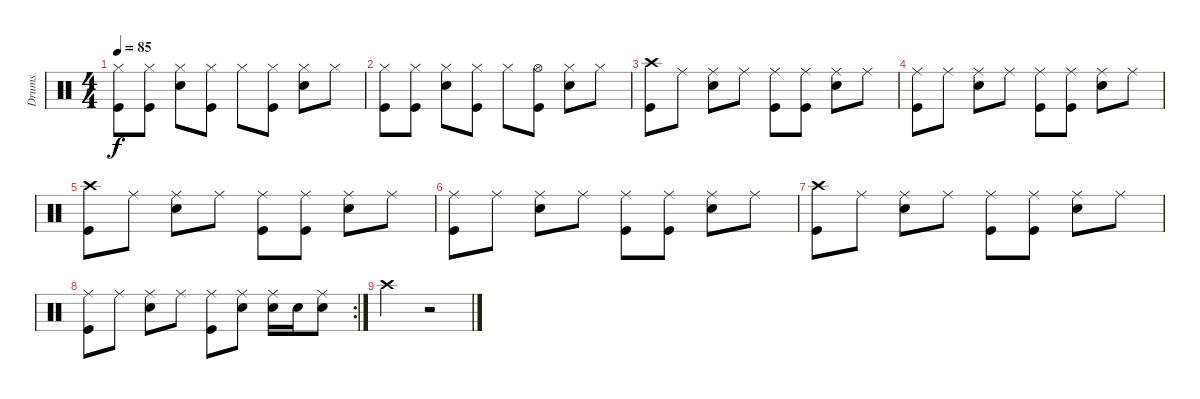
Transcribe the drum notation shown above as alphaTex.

\track ("Drums" "Drums") {instrument percussion}
\staff {score}
\articulation defaults
\ts (4 4)
\tempo 85
\clef neutral
\ks c
("Kick (hit)" "Hi-Hat (closed)").8{dy f} ("Hi-Hat (closed)" "Kick (hit)").8 ("Snare (hit) 2" "Hi-Hat (closed)").8 ("Kick (hit)" "Hi-Hat (closed)").8 "Hi-Hat (closed)".8 ("Hi-Hat (closed)" "Kick (hit)").8 ("Hi-Hat (closed)" "Snare (hit) 2").8 "Hi-Hat (closed)".8 |
("Kick (hit)" "Hi-Hat (closed)").8 ("Hi-Hat (closed)" "Kick (hit)").8 ("Snare (hit) 2" "Hi-Hat (closed)").8 ("Kick (hit)" "Hi-Hat (closed)").8 "Hi-Hat (closed)".8 ("Hi-Hat (open)" "Kick (hit)").8 ("Hi-Hat (closed)" "Snare (hit) 2").8 "Hi-Hat (closed)".8 |
("Kick (hit)" "Crash high (hit)").8 "Ride (middle)".8 ("Ride (middle)" "Snare (hit) 2").8 "Ride (middle)".8 ("Kick (hit)" "Ride (middle)").8 ("Kick (hit)" "Ride (middle)").8 ("Snare (hit) 2" "Ride (middle)").8 "Ride (middle)".8 |
("Kick (hit)" "Ride (middle)").8 "Ride (middle)".8 ("Ride (middle)" "Snare (hit) 2").8 "Ride (middle)".8 ("Kick (hit)" "Ride (middle)").8 ("Kick (hit)" "Ride (middle)").8 ("Snare (hit) 2" "Ride (middle)").8 "Ride (middle)".8 |
("Kick (hit)" "Crash high (hit)").8 "Ride (middle)".8 ("Ride (middle)" "Snare (hit) 2").8 "Ride (middle)".8 ("Kick (hit)" "Ride (middle)").8 ("Kick (hit)" "Ride (middle)").8 ("Snare (hit) 2" "Ride (middle)").8 "Ride (middle)".8 |
("Kick (hit)" "Ride (middle)").8 "Ride (middle)".8 ("Ride (middle)" "Snare (hit) 2").8 "Ride (middle)".8 ("Kick (hit)" "Ride (middle)").8 ("Kick (hit)" "Ride (middle)").8 ("Snare (hit) 2" "Ride (middle)").8 "Ride (middle)".8 |
("Kick (hit)" "Crash high (hit)").8 "Ride (middle)".8 ("Ride (middle)" "Snare (hit) 2").8 "Ride (middle)".8 ("Kick (hit)" "Ride (middle)").8 ("Kick (hit)" "Ride (middle)").8 ("Snare (hit) 2" "Ride (middle)").8 "Ride (middle)".8 |
\rc 2
("Kick (hit)" "Ride (middle)").8 "Ride (middle)".8 ("Ride (middle)" "Snare (hit) 2").8 "Ride (middle)".8 ("Kick (hit)" "Ride (middle)").8 ("Ride (middle)" "Snare (hit) 2").8 ("Snare (hit) 2" "Ride (middle)").16 "Snare (hit) 2".16 ("Ride (middle)" "Snare (hit) 2").8 |
"Crash high (hit)".2 r.2
